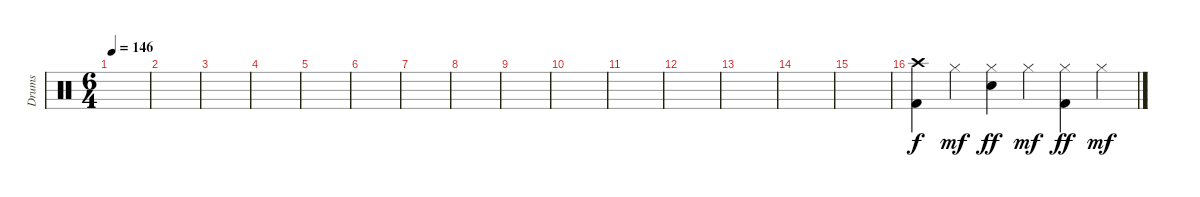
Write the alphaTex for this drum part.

\track ("Drums" "Drums") {instrument percussion}
\staff {score}
\articulation defaults
\ts (6 4)
\tempo 146
\clef neutral
\ks c
|
|
|
|
|
|
|
|
|
|
|
|
|
|
|
("Crash high (hit)" "Kick (hit) 2").4{volume 16} "Hi-Hat (closed)".4{dy mf} ("Hi-Hat (closed)" "Electric Snare (hit)").4{dy ff} "Hi-Hat (closed)".4{dy mf} ("Hi-Hat (closed)" "Kick (hit) 2").4{dy ff} "Hi-Hat (closed)".4{dy mf}
